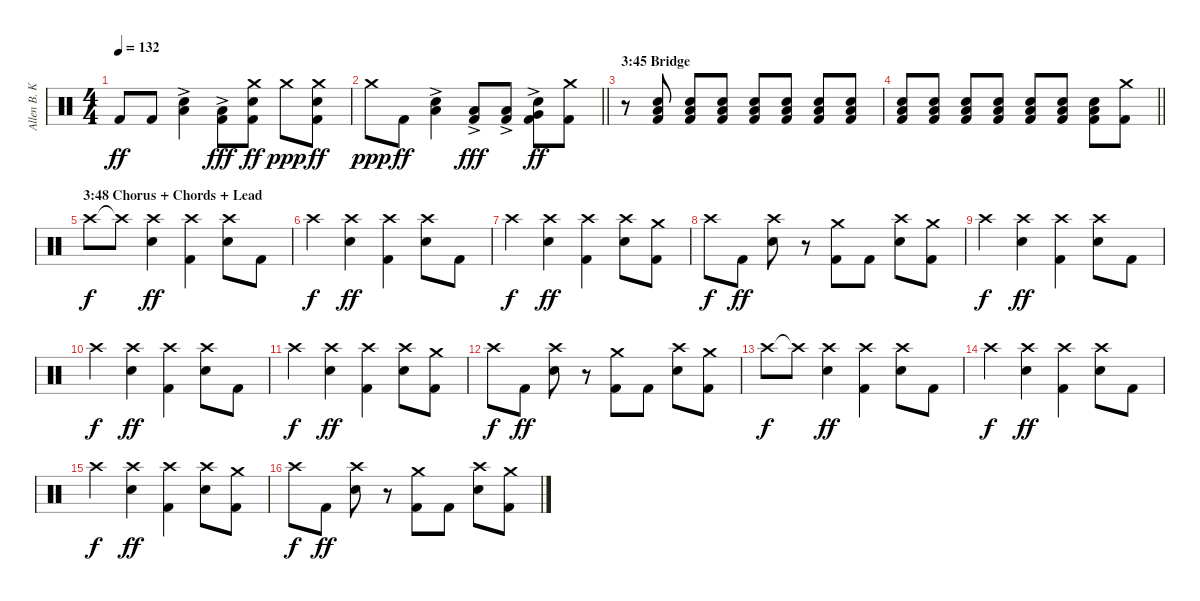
\track ("Allen B. Konstanz (Drums)" "Allen B. K") {instrument percussion}
\staff {score}
\articulation defaults
\ts (4 4)
\tempo 132
\clef neutral
\ks c "Kick (hit) 2".8{dy ff} "Kick (hit) 2".8
("Low Floor Tom (hit)"{ac} "Electric Snare (hit)").4 ("Kick (hit) 2" "Low Floor Tom (hit)"{ac}).8{dy fff} ("Kick (hit) 2" "Electric Snare (hit)" "Crash medium (hit)").8{dy ff} "Crash medium (hit)".8{dy ppp} ("Kick (hit) 2" "Electric Snare (hit)" "Crash medium (hit)").8{dy ff} |
\barLineRight lightlight "Crash medium (hit)".8{dy ppp} "Kick (hit) 2".8{dy ff}
("Low Floor Tom (hit)"{ac} "Electric Snare (hit)").4 ("Kick (hit) 2" "Low Floor Tom (hit)"{ac}).8{dy fff} ("Kick (hit) 2" "Low Floor Tom (hit)"{ac}).8 ("Kick (hit) 2" "Very Low Tom (hit)"{ac} "Electric Snare (hit)").8{dy ff} ("Kick (hit) 2" "Crash medium (hit)").8 |
\section ("" "3:45 Bridge")
r.8 ("Kick (hit) 2" "Low Floor Tom (hit)" "Electric Snare (hit)").8 ("Kick (hit) 2" "Low Floor Tom (hit)" "Electric Snare (hit)").8 ("Kick (hit) 2" "Low Floor Tom (hit)" "Electric Snare (hit)").8 ("Kick (hit) 2" "Low Floor Tom (hit)" "Electric Snare (hit)").8 ("Kick (hit) 2" "Low Floor Tom (hit)" "Electric Snare (hit)").8 ("Kick (hit) 2" "Low Floor Tom (hit)" "Electric Snare (hit)").8 ("Kick (hit) 2" "Low Floor Tom (hit)" "Electric Snare (hit)").8 |
\barLineRight lightlight
("Kick (hit) 2" "Low Floor Tom (hit)" "Electric Snare (hit)").8 ("Kick (hit) 2" "Low Floor Tom (hit)" "Electric Snare (hit)").8 ("Kick (hit) 2" "Low Floor Tom (hit)" "Electric Snare (hit)").8 ("Kick (hit) 2" "Low Floor Tom (hit)" "Electric Snare (hit)").8 ("Kick (hit) 2" "Low Floor Tom (hit)" "Electric Snare (hit)").8 ("Kick (hit) 2" "Low Floor Tom (hit)" "Electric Snare (hit)").8 ("Kick (hit) 2" "Low Floor Tom (hit)" "Electric Snare (hit)").8 ("Kick (hit) 2" "Crash medium (hit)").8 |
\section ("" "3:48 Chorus + Chords + Lead")
"Crash high (hit)".8{dy f} "Crash high (hit)"{t}.8 ("Electric Snare (hit)" "Crash high (hit)").4{dy ff} ("Kick (hit) 2" "Crash high (hit)").4 ("Electric Snare (hit)" "Crash high (hit)").8 "Kick (hit) 2".8 |
"Crash high (hit)".4{dy f} ("Electric Snare (hit)" "Crash high (hit)").4{dy ff} ("Kick (hit) 2" "Crash high (hit)").4 ("Electric Snare (hit)" "Crash high (hit)").8 "Kick (hit) 2".8 |
"Crash high (hit)".4{dy f} ("Electric Snare (hit)" "Crash high (hit)").4{dy ff} ("Kick (hit) 2" "Crash high (hit)").4 ("Electric Snare (hit)" "Crash high (hit)").8 ("Kick (hit) 2" "Crash medium (hit)").8 |
"Crash high (hit)".8{dy f} "Kick (hit) 2".8{dy ff} ("Electric Snare (hit)" "Crash high (hit)").8 r.8 ("Kick (hit) 2" "Crash medium (hit)").8 "Kick (hit) 2".8 ("Electric Snare (hit)" "Crash high (hit)").8 ("Kick (hit) 2" "Crash medium (hit)").8 |
"Crash high (hit)".4{dy f} ("Electric Snare (hit)" "Crash high (hit)").4{dy ff} ("Kick (hit) 2" "Crash high (hit)").4 ("Electric Snare (hit)" "Crash high (hit)").8 "Kick (hit) 2".8 |
"Crash high (hit)".4{dy f} ("Electric Snare (hit)" "Crash high (hit)").4{dy ff} ("Kick (hit) 2" "Crash high (hit)").4 ("Electric Snare (hit)" "Crash high (hit)").8 "Kick (hit) 2".8 |
"Crash high (hit)".4{dy f} ("Electric Snare (hit)" "Crash high (hit)").4{dy ff} ("Kick (hit) 2" "Crash high (hit)").4 ("Electric Snare (hit)" "Crash high (hit)").8 ("Kick (hit) 2" "Crash medium (hit)").8 |
"Crash high (hit)".8{dy f} "Kick (hit) 2".8{dy ff} ("Electric Snare (hit)" "Crash high (hit)").8 r.8 ("Kick (hit) 2" "Crash medium (hit)").8 "Kick (hit) 2".8 ("Electric Snare (hit)" "Crash high (hit)").8 ("Kick (hit) 2" "Crash medium (hit)").8 |
"Crash high (hit)".8{dy f} "Crash high (hit)"{t}.8 ("Electric Snare (hit)" "Crash high (hit)").4{dy ff} ("Kick (hit) 2" "Crash high (hit)").4 ("Electric Snare (hit)" "Crash high (hit)").8 "Kick (hit) 2".8 |
"Crash high (hit)".4{dy f} ("Electric Snare (hit)" "Crash high (hit)").4{dy ff} ("Kick (hit) 2" "Crash high (hit)").4 ("Electric Snare (hit)" "Crash high (hit)").8 "Kick (hit) 2".8 |
"Crash high (hit)".4{dy f} ("Electric Snare (hit)" "Crash high (hit)").4{dy ff} ("Kick (hit) 2" "Crash high (hit)").4 ("Electric Snare (hit)" "Crash high (hit)").8 ("Kick (hit) 2" "Crash medium (hit)").8 |
"Crash high (hit)".8{dy f} "Kick (hit) 2".8{dy ff} ("Electric Snare (hit)" "Crash high (hit)").8 r.8 ("Kick (hit) 2" "Crash medium (hit)").8 "Kick (hit) 2".8 ("Electric Snare (hit)" "Crash high (hit)").8 ("Kick (hit) 2" "Crash medium (hit)").8
